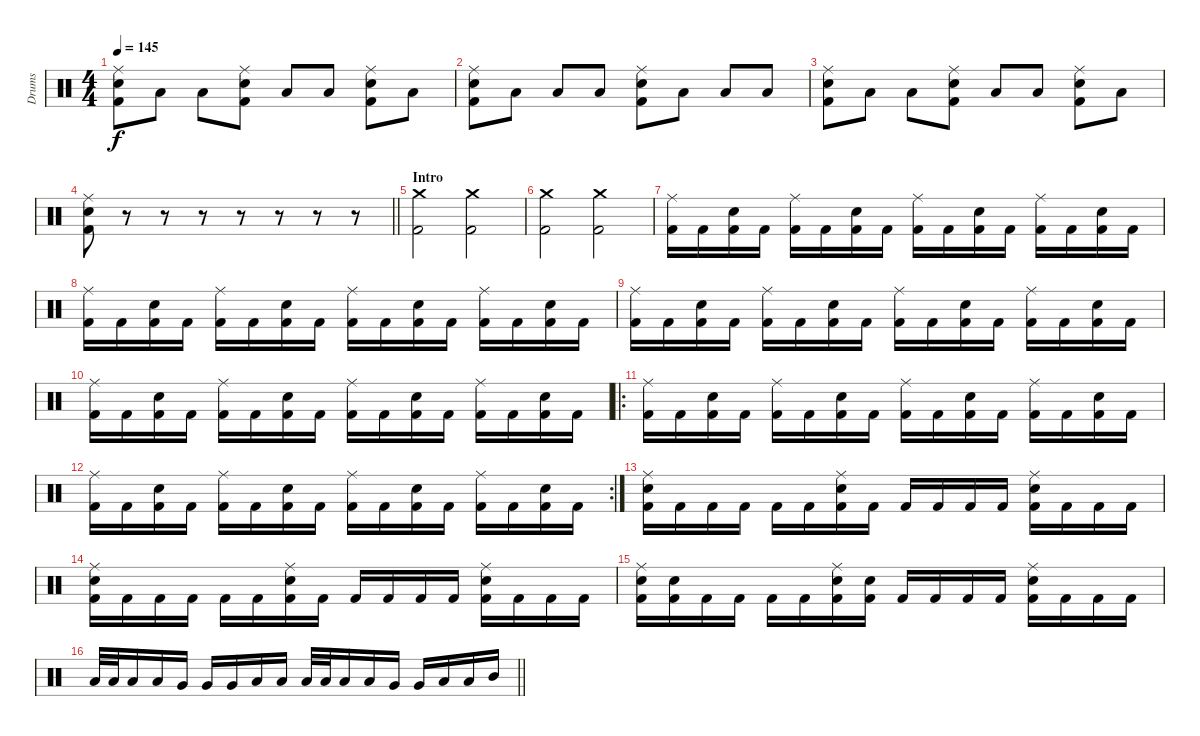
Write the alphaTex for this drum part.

\track ("Drums" "Drums") {instrument percussion}
\staff {score}
\articulation defaults
\ts (4 4)
\tempo 145
\clef neutral
\ks c
("Ride (middle)" "Electric Snare (hit)" "Kick (hit) 2").8{dy f} "Low Floor Tom (hit)".8 "Low Floor Tom (hit)".8 ("Ride (middle)" "Electric Snare (hit)" "Kick (hit) 2").8 "Low Floor Tom (hit)".8 "Low Floor Tom (hit)".8 ("Ride (middle)" "Electric Snare (hit)" "Kick (hit) 2").8 "Low Floor Tom (hit)".8 |
("Ride (middle)" "Electric Snare (hit)" "Kick (hit) 2").8 "Low Floor Tom (hit)".8 "Low Floor Tom (hit)".8 "Low Floor Tom (hit)".8 ("Ride (middle)" "Electric Snare (hit)" "Kick (hit) 2").8 "Low Floor Tom (hit)".8 "Low Floor Tom (hit)".8 "Low Floor Tom (hit)".8 |
("Ride (middle)" "Electric Snare (hit)" "Kick (hit) 2").8 "Low Floor Tom (hit)".8 "Low Floor Tom (hit)".8 ("Ride (middle)" "Electric Snare (hit)" "Kick (hit) 2").8 "Low Floor Tom (hit)".8 "Low Floor Tom (hit)".8 ("Ride (middle)" "Electric Snare (hit)" "Kick (hit) 2").8 "Low Floor Tom (hit)".8 |
\barLineRight lightlight
("Ride (middle)" "Electric Snare (hit)" "Kick (hit) 2").8 r.8 r.8 r.8 r.8 r.8 r.8 r.8 |
\section ("" "Intro")
("Crash medium (hit)" "Kick (hit) 2").2 ("Crash medium (hit)" "Kick (hit) 2").2 |
("Crash medium (hit)" "Kick (hit) 2").2 ("Crash medium (hit)" "Kick (hit) 2").2 |
("Ride (middle)" "Kick (hit) 2").16 "Kick (hit) 2".16 ("Electric Snare (hit)" "Kick (hit) 2").16 "Kick (hit) 2".16 ("Ride (middle)" "Kick (hit) 2").16 "Kick (hit) 2".16 ("Electric Snare (hit)" "Kick (hit) 2").16 "Kick (hit) 2".16 ("Ride (middle)" "Kick (hit) 2").16 "Kick (hit) 2".16 ("Electric Snare (hit)" "Kick (hit) 2").16 "Kick (hit) 2".16 ("Ride (middle)" "Kick (hit) 2").16 "Kick (hit) 2".16 ("Electric Snare (hit)" "Kick (hit) 2").16 "Kick (hit) 2".16 |
("Ride (middle)" "Kick (hit) 2").16 "Kick (hit) 2".16 ("Electric Snare (hit)" "Kick (hit) 2").16 "Kick (hit) 2".16 ("Ride (middle)" "Kick (hit) 2").16 "Kick (hit) 2".16 ("Electric Snare (hit)" "Kick (hit) 2").16 "Kick (hit) 2".16 ("Ride (middle)" "Kick (hit) 2").16 "Kick (hit) 2".16 ("Electric Snare (hit)" "Kick (hit) 2").16 "Kick (hit) 2".16 ("Ride (middle)" "Kick (hit) 2").16 "Kick (hit) 2".16 ("Electric Snare (hit)" "Kick (hit) 2").16 "Kick (hit) 2".16 |
("Ride (middle)" "Kick (hit) 2").16 "Kick (hit) 2".16 ("Electric Snare (hit)" "Kick (hit) 2").16 "Kick (hit) 2".16 ("Ride (middle)" "Kick (hit) 2").16 "Kick (hit) 2".16 ("Electric Snare (hit)" "Kick (hit) 2").16 "Kick (hit) 2".16 ("Ride (middle)" "Kick (hit) 2").16 "Kick (hit) 2".16 ("Electric Snare (hit)" "Kick (hit) 2").16 "Kick (hit) 2".16 ("Ride (middle)" "Kick (hit) 2").16 "Kick (hit) 2".16 ("Electric Snare (hit)" "Kick (hit) 2").16 "Kick (hit) 2".16 |
("Ride (middle)" "Kick (hit) 2").16 "Kick (hit) 2".16 ("Electric Snare (hit)" "Kick (hit) 2").16 "Kick (hit) 2".16 ("Ride (middle)" "Kick (hit) 2").16 "Kick (hit) 2".16 ("Electric Snare (hit)" "Kick (hit) 2").16 "Kick (hit) 2".16 ("Ride (middle)" "Kick (hit) 2").16 "Kick (hit) 2".16 ("Electric Snare (hit)" "Kick (hit) 2").16 "Kick (hit) 2".16 ("Ride (middle)" "Kick (hit) 2").16 "Kick (hit) 2".16 ("Electric Snare (hit)" "Kick (hit) 2").16 "Kick (hit) 2".16 |
\ro
("Ride (middle)" "Kick (hit) 2").16 "Kick (hit) 2".16 ("Electric Snare (hit)" "Kick (hit) 2").16 "Kick (hit) 2".16 ("Ride (middle)" "Kick (hit) 2").16 "Kick (hit) 2".16 ("Electric Snare (hit)" "Kick (hit) 2").16 "Kick (hit) 2".16 ("Ride (middle)" "Kick (hit) 2").16 "Kick (hit) 2".16 ("Electric Snare (hit)" "Kick (hit) 2").16 "Kick (hit) 2".16 ("Ride (middle)" "Kick (hit) 2").16 "Kick (hit) 2".16 ("Electric Snare (hit)" "Kick (hit) 2").16 "Kick (hit) 2".16 |
\rc 2
("Ride (middle)" "Kick (hit) 2").16 "Kick (hit) 2".16 ("Electric Snare (hit)" "Kick (hit) 2").16 "Kick (hit) 2".16 ("Ride (middle)" "Kick (hit) 2").16 "Kick (hit) 2".16 ("Electric Snare (hit)" "Kick (hit) 2").16 "Kick (hit) 2".16 ("Ride (middle)" "Kick (hit) 2").16 "Kick (hit) 2".16 ("Electric Snare (hit)" "Kick (hit) 2").16 "Kick (hit) 2".16 ("Ride (middle)" "Kick (hit) 2").16 "Kick (hit) 2".16 ("Electric Snare (hit)" "Kick (hit) 2").16 "Kick (hit) 2".16 |
("Ride (middle)" "Electric Snare (hit)" "Kick (hit) 2").16 "Kick (hit) 2".16 "Kick (hit) 2".16 "Kick (hit) 2".16 "Kick (hit) 2".16 "Kick (hit) 2".16 ("Ride (middle)" "Electric Snare (hit)" "Kick (hit) 2").16 "Kick (hit) 2".16 "Kick (hit) 2".16 "Kick (hit) 2".16 "Kick (hit) 2".16 "Kick (hit) 2".16 ("Ride (middle)" "Electric Snare (hit)" "Kick (hit) 2").16 "Kick (hit) 2".16 "Kick (hit) 2".16 "Kick (hit) 2".16 |
("Ride (middle)" "Electric Snare (hit)" "Kick (hit) 2").16 "Kick (hit) 2".16 "Kick (hit) 2".16 "Kick (hit) 2".16 "Kick (hit) 2".16 "Kick (hit) 2".16 ("Ride (middle)" "Electric Snare (hit)" "Kick (hit) 2").16 "Kick (hit) 2".16 "Kick (hit) 2".16 "Kick (hit) 2".16 "Kick (hit) 2".16 "Kick (hit) 2".16 ("Ride (middle)" "Electric Snare (hit)" "Kick (hit) 2").16 "Kick (hit) 2".16 "Kick (hit) 2".16 "Kick (hit) 2".16 |
("Ride (middle)" "Electric Snare (hit)" "Kick (hit) 2").16 ("Electric Snare (hit)" "Kick (hit) 2").16 "Kick (hit) 2".16 "Kick (hit) 2".16 "Kick (hit) 2".16 "Kick (hit) 2".16 ("Ride (middle)" "Electric Snare (hit)" "Kick (hit) 2").16 ("Electric Snare (hit)" "Kick (hit) 2").16 "Kick (hit) 2".16 "Kick (hit) 2".16 "Kick (hit) 2".16 "Kick (hit) 2".16 ("Ride (middle)" "Electric Snare (hit)" "Kick (hit) 2").16 "Kick (hit) 2".16 "Kick (hit) 2".16 "Kick (hit) 2".16 |
\barLineRight lightlight "Low Tom (hit)".32 "Low Tom (hit)".32 "Low Tom (hit)".16 "Low Tom (hit)".16 "Very Low Tom (hit)".16 "Very Low Tom (hit)".16 "Very Low Tom (hit)".16 "Low Floor Tom (hit)".16 "Low Floor Tom (hit)".16 "Low Floor Tom (hit)".32 "Low Floor Tom (hit)".32 "Low Floor Tom (hit)".16 "Low Floor Tom (hit)".16 "Very Low Tom (hit)".16 "Very Low Tom (hit)".16 "Low Tom (hit)".16 "Low Tom (hit)".16 "Mid Tom (hit)".16
